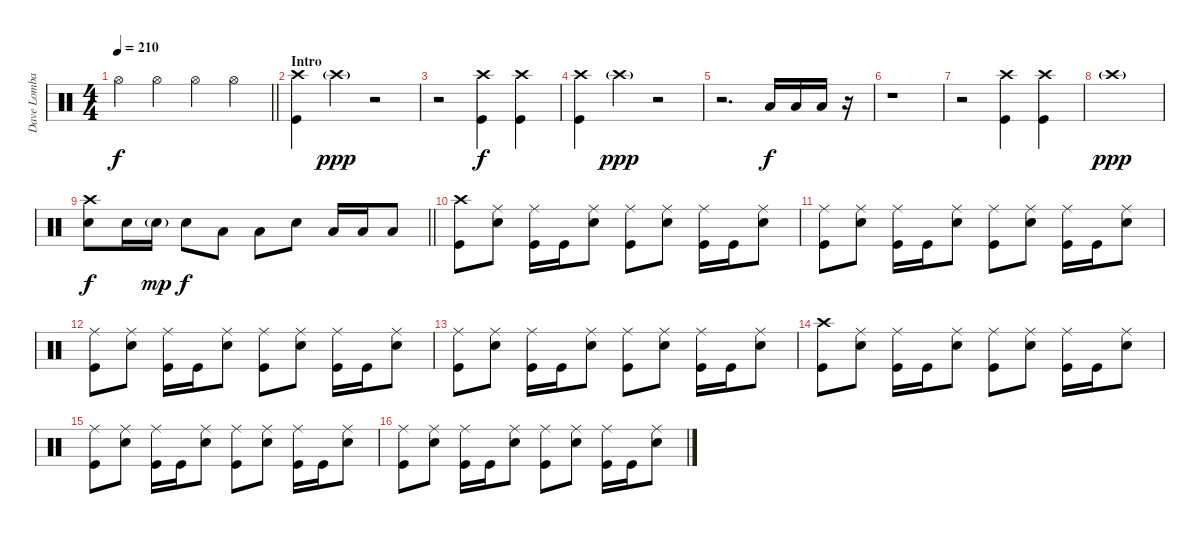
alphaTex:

\track ("Dave Lombardo" "Dave Lomba") {instrument percussion}
\staff {score}
\articulation defaults
\ts (4 4)
\tempo 210
\clef neutral
\barLineRight lightlight
\ks c "Hi-Hat (open)".4{dy f} "Hi-Hat (open)".4 "Hi-Hat (open)".4 "Hi-Hat (open)".4
|
\section ("" "Intro")
("Crash high (hit)" "Kick (hit)").4 "Crash high (hit)"{g}.4{dy ppp} r.2 |
r.2 ("Crash high (hit)" "Kick (hit)").4{dy f} ("Crash high (hit)" "Kick (hit)").4 |
("Crash high (hit)" "Kick (hit)").4 "Crash high (hit)"{g}.4{dy ppp} r.2 |
r.2{d} "Low Floor Tom (hit)".16{dy f} "Low Floor Tom (hit)".16 "Low Floor Tom (hit)".16 r.16 |
r.1 |
r.2 ("Crash high (hit)" "Kick (hit)").4 ("Crash high (hit)" "Kick (hit)").4 |
"Crash high (hit)"{g}.1{dy ppp} |
\barLineRight lightlight
("Crash high (hit)" "Electric Snare (hit)").8{dy f} "Electric Snare (hit)".16 "Electric Snare (hit)"{g}.16{dy mp} "Electric Snare (hit)".8{dy f} "Low Tom (hit)".8 "Low Tom (hit)".8 "Electric Snare (hit)".8 "Low Tom (hit)".16 "Low Tom (hit)".16 "Low Tom (hit)".8 |
\section ("" "")
("Crash high (hit)" "Kick (hit)").8 ("Ride (middle)" "Electric Snare (hit)").8 ("Ride (middle)" "Kick (hit)").16 "Kick (hit)".16 ("Ride (middle)" "Electric Snare (hit)").8 ("Ride (middle)" "Kick (hit)").8 ("Ride (middle)" "Electric Snare (hit)").8 ("Ride (middle)" "Kick (hit)").16 "Kick (hit)".16 ("Ride (middle)" "Electric Snare (hit)").8 |
("Ride (middle)" "Kick (hit)").8 ("Ride (middle)" "Electric Snare (hit)").8 ("Ride (middle)" "Kick (hit)").16 "Kick (hit)".16 ("Ride (middle)" "Electric Snare (hit)").8 ("Ride (middle)" "Kick (hit)").8 ("Ride (middle)" "Electric Snare (hit)").8 ("Ride (middle)" "Kick (hit)").16 "Kick (hit)".16 ("Ride (middle)" "Electric Snare (hit)").8 |
("Ride (middle)" "Kick (hit)").8 ("Ride (middle)" "Electric Snare (hit)").8 ("Ride (middle)" "Kick (hit)").16 "Kick (hit)".16 ("Ride (middle)" "Electric Snare (hit)").8 ("Ride (middle)" "Kick (hit)").8 ("Ride (middle)" "Electric Snare (hit)").8 ("Ride (middle)" "Kick (hit)").16 "Kick (hit)".16 ("Ride (middle)" "Electric Snare (hit)").8 |
("Ride (middle)" "Kick (hit)").8 ("Ride (middle)" "Electric Snare (hit)").8 ("Ride (middle)" "Kick (hit)").16 "Kick (hit)".16 ("Ride (middle)" "Electric Snare (hit)").8 ("Ride (middle)" "Kick (hit)").8 ("Ride (middle)" "Electric Snare (hit)").8 ("Ride (middle)" "Kick (hit)").16 "Kick (hit)".16 ("Ride (middle)" "Electric Snare (hit)").8 |
("Crash high (hit)" "Kick (hit)").8 ("Ride (middle)" "Electric Snare (hit)").8 ("Ride (middle)" "Kick (hit)").16 "Kick (hit)".16 ("Ride (middle)" "Electric Snare (hit)").8 ("Ride (middle)" "Kick (hit)").8 ("Ride (middle)" "Electric Snare (hit)").8 ("Ride (middle)" "Kick (hit)").16 "Kick (hit)".16 ("Ride (middle)" "Electric Snare (hit)").8 |
("Ride (middle)" "Kick (hit)").8 ("Ride (middle)" "Electric Snare (hit)").8 ("Ride (middle)" "Kick (hit)").16 "Kick (hit)".16 ("Ride (middle)" "Electric Snare (hit)").8 ("Ride (middle)" "Kick (hit)").8 ("Ride (middle)" "Electric Snare (hit)").8 ("Ride (middle)" "Kick (hit)").16 "Kick (hit)".16 ("Ride (middle)" "Electric Snare (hit)").8 |
("Ride (middle)" "Kick (hit)").8 ("Ride (middle)" "Electric Snare (hit)").8 ("Ride (middle)" "Kick (hit)").16 "Kick (hit)".16 ("Ride (middle)" "Electric Snare (hit)").8 ("Ride (middle)" "Kick (hit)").8 ("Ride (middle)" "Electric Snare (hit)").8 ("Ride (middle)" "Kick (hit)").16 "Kick (hit)".16 ("Ride (middle)" "Electric Snare (hit)").8
